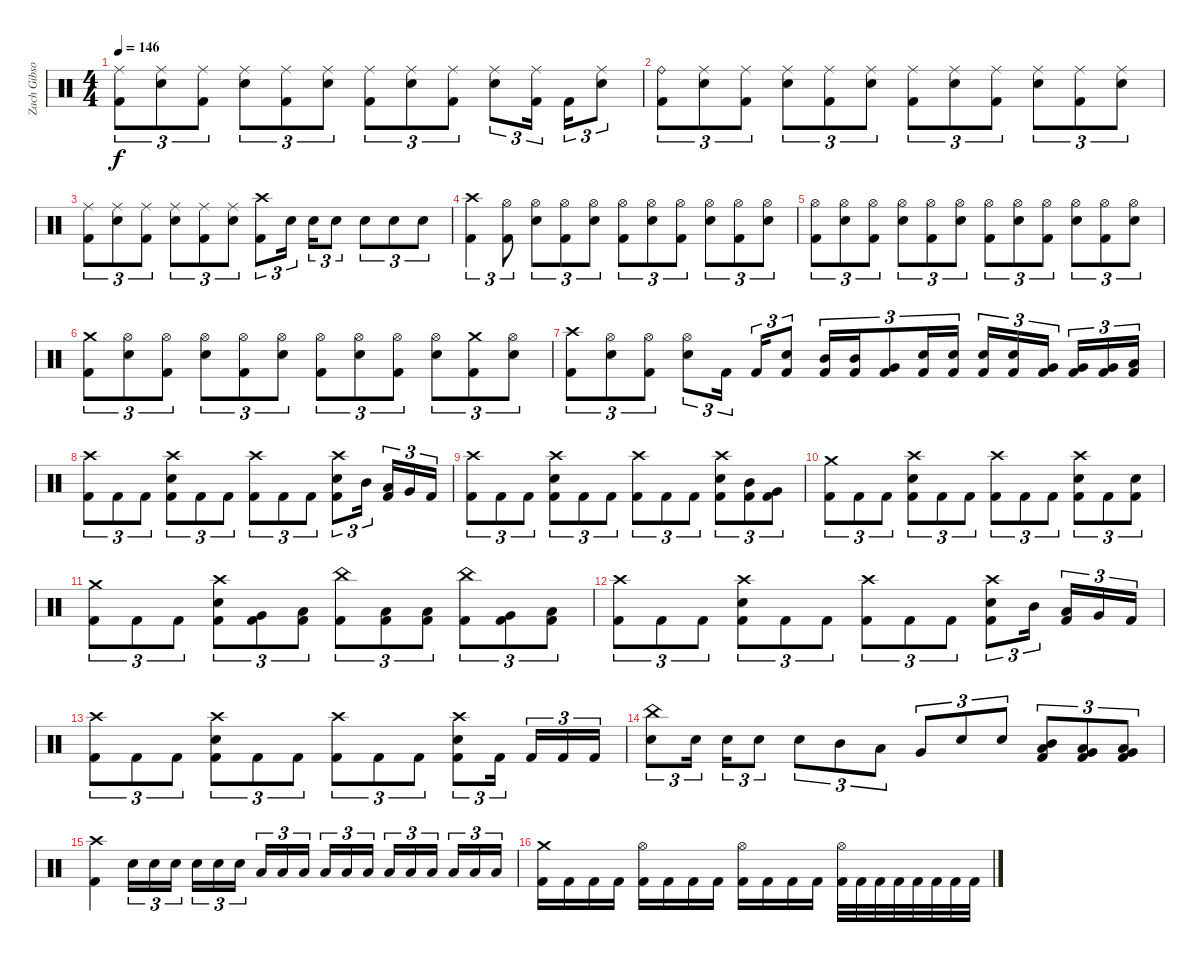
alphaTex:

\track ("Zach Gibson (Drums)" "Zach Gibso") {instrument percussion}
\staff {score}
\articulation defaults
\ts (4 4)
\tempo 146
\clef neutral
\ks c
("Ride (middle)" "Kick (hit) 2").8{tu (3 2) dy f} ("Ride (middle)" "Snare (hit) 2").8{tu (3 2)} ("Ride (middle)" "Kick (hit) 2").8{tu (3 2)} ("Ride (middle)" "Snare (hit) 2").8{tu (3 2)} ("Ride (middle)" "Kick (hit) 2").8{tu (3 2)} ("Ride (middle)" "Snare (hit) 2").8{tu (3 2)} ("Ride (middle)" "Kick (hit) 2").8{tu (3 2)} ("Ride (middle)" "Snare (hit) 2").8{tu (3 2)} ("Ride (middle)" "Kick (hit) 2").8{tu (3 2)} ("Ride (middle)" "Snare (hit) 2").8{tu (3 2)} ("Ride (middle)" "Kick (hit) 2").16{tu (3 2)} "Kick (hit) 2".16{tu (3 2)} ("Ride (middle)" "Snare (hit) 2").8{tu (3 2)} |
("Ride (bell)" "Kick (hit) 2").8{tu (3 2)} ("Ride (middle)" "Snare (hit) 2").8{tu (3 2)} ("Ride (middle)" "Kick (hit) 2").8{tu (3 2)} ("Ride (middle)" "Snare (hit) 2").8{tu (3 2)} ("Ride (middle)" "Kick (hit) 2").8{tu (3 2)} ("Ride (middle)" "Snare (hit) 2").8{tu (3 2)} ("Ride (middle)" "Kick (hit) 2").8{tu (3 2)} ("Ride (middle)" "Snare (hit) 2").8{tu (3 2)} ("Ride (middle)" "Kick (hit) 2").8{tu (3 2)} ("Ride (middle)" "Snare (hit) 2").8{tu (3 2)} ("Ride (middle)" "Kick (hit) 2").8{tu (3 2)} ("Ride (middle)" "Snare (hit) 2").8{tu (3 2)} |
("Ride (middle)" "Kick (hit) 2").8{tu (3 2)} ("Ride (middle)" "Snare (hit) 2").8{tu (3 2)} ("Ride (middle)" "Kick (hit) 2").8{tu (3 2)} ("Ride (middle)" "Snare (hit) 2").8{tu (3 2)} ("Ride (middle)" "Kick (hit) 2").8{tu (3 2)} ("Ride (middle)" "Snare (hit) 2").8{tu (3 2)} ("Crash high (hit)" "Kick (hit) 2").8{tu (3 2)} "Snare (hit) 2".16{tu (3 2)} "Snare (hit) 2".16{tu (3 2)} "Snare (hit) 2".8{tu (3 2)} "Snare (hit) 2".8{tu (3 2)} "Snare (hit) 2".8{tu (3 2)} "Snare (hit) 2".8{tu (3 2)} |
("Crash high (hit)" "Kick (hit) 2").4{tu (3 2)} ("Hi-Hat (open)" "Kick (hit) 2").8{tu (3 2)} ("Hi-Hat (open)" "Snare (hit) 2").8{tu (3 2)} ("Hi-Hat (open)" "Kick (hit) 2").8{tu (3 2)} ("Hi-Hat (open)" "Snare (hit) 2").8{tu (3 2)} ("Hi-Hat (open)" "Kick (hit) 2").8{tu (3 2)} ("Hi-Hat (open)" "Snare (hit) 2").8{tu (3 2)} ("Hi-Hat (open)" "Kick (hit) 2").8{tu (3 2)} ("Hi-Hat (open)" "Snare (hit) 2").8{tu (3 2)} ("Hi-Hat (open)" "Kick (hit) 2").8{tu (3 2)} ("Hi-Hat (open)" "Snare (hit) 2").8{tu (3 2)} |
("Hi-Hat (open)" "Kick (hit) 2").8{tu (3 2)} ("Hi-Hat (open)" "Snare (hit) 2").8{tu (3 2)} ("Hi-Hat (open)" "Kick (hit) 2").8{tu (3 2)} ("Hi-Hat (open)" "Snare (hit) 2").8{tu (3 2)} ("Hi-Hat (open)" "Kick (hit) 2").8{tu (3 2)} ("Hi-Hat (open)" "Snare (hit) 2").8{tu (3 2)} ("Hi-Hat (open)" "Kick (hit) 2").8{tu (3 2)} ("Hi-Hat (open)" "Snare (hit) 2").8{tu (3 2)} ("Hi-Hat (open)" "Kick (hit) 2").8{tu (3 2)} ("Hi-Hat (open)" "Snare (hit) 2").8{tu (3 2)} ("Hi-Hat (open)" "Kick (hit) 2").8{tu (3 2)} ("Hi-Hat (open)" "Snare (hit) 2").8{tu (3 2)} |
("Crash medium (hit)" "Kick (hit) 2").8{tu (3 2)} ("Hi-Hat (open)" "Snare (hit) 2").8{tu (3 2)} ("Hi-Hat (open)" "Kick (hit) 2").8{tu (3 2)} ("Hi-Hat (open)" "Snare (hit) 2").8{tu (3 2)} ("Hi-Hat (open)" "Kick (hit) 2").8{tu (3 2)} ("Hi-Hat (open)" "Snare (hit) 2").8{tu (3 2)} ("Hi-Hat (open)" "Kick (hit) 2").8{tu (3 2)} ("Hi-Hat (open)" "Snare (hit) 2").8{tu (3 2)} ("Hi-Hat (open)" "Kick (hit) 2").8{tu (3 2)} ("Hi-Hat (open)" "Snare (hit) 2").8{tu (3 2)} ("Crash medium (hit)" "Kick (hit) 2").8{tu (3 2)} ("Hi-Hat (open)" "Snare (hit) 2").8{tu (3 2)} |
("Crash high (hit)" "Kick (hit) 2").8{tu (3 2)} ("Hi-Hat (open)" "Snare (hit) 2").8{tu (3 2)} ("Hi-Hat (open)" "Kick (hit) 2").8{tu (3 2)} ("Hi-Hat (open)" "Snare (hit) 2").8{tu (3 2)} "Kick (hit) 2".16{tu (3 2)} "Kick (hit) 2".16{tu (3 2)} ("Kick (hit) 2" "Snare (hit) 2").8{tu (3 2)} ("Kick (hit) 2" "Mid Tom (hit)").16{tu (3 2)} ("Kick (hit) 2" "Mid Tom (hit)").16{tu (3 2)} ("Kick (hit) 2" "Very Low Tom (hit)").8{tu (3 2)} ("Kick (hit) 2" "Snare (hit) 2").16{tu (3 2)} ("Kick (hit) 2" "Snare (hit) 2").16{tu (3 2)} ("Kick (hit) 2" "Snare (hit) 2").16{tu (3 2)} ("Kick (hit) 2" "Snare (hit) 2").16{tu (3 2)} ("Kick (hit) 2" "Very Low Tom (hit)").16{tu (3 2)} ("Kick (hit) 2" "Very Low Tom (hit)").16{tu (3 2)} ("Kick (hit) 2" "Very Low Tom (hit)").16{tu (3 2)} ("Kick (hit) 2" "Low Floor Tom (hit)").16{tu (3 2)} |
("Crash high (hit)" "Kick (hit) 2").8{tu (3 2)} "Kick (hit) 2".8{tu (3 2)} "Kick (hit) 2".8{tu (3 2)} ("Crash high (hit)" "Snare (hit) 2" "Kick (hit) 2").8{tu (3 2)} "Kick (hit) 2".8{tu (3 2)} "Kick (hit) 2".8{tu (3 2)} ("Crash high (hit)" "Kick (hit) 2").8{tu (3 2)} "Kick (hit) 2".8{tu (3 2)} "Kick (hit) 2".8{tu (3 2)} ("Crash high (hit)" "Snare (hit) 2" "Kick (hit) 2").8{tu (3 2)} "Mid Tom (hit)".16{tu (3 2)} ("Low Tom (hit)" "Kick (hit) 2").16{tu (3 2)} "Very Low Tom (hit)".16{tu (3 2)} "Kick (hit) 2".16{tu (3 2)} |
("Crash high (hit)" "Kick (hit) 2").8{tu (3 2)} "Kick (hit) 2".8{tu (3 2)} "Kick (hit) 2".8{tu (3 2)} ("Crash high (hit)" "Snare (hit) 2" "Kick (hit) 2").8{tu (3 2)} "Kick (hit) 2".8{tu (3 2)} "Kick (hit) 2".8{tu (3 2)} ("Crash high (hit)" "Kick (hit) 2").8{tu (3 2)} "Kick (hit) 2".8{tu (3 2)} "Kick (hit) 2".8{tu (3 2)} ("Crash high (hit)" "Snare (hit) 2" "Kick (hit) 2").8{tu (3 2)} ("Mid Tom (hit)" "Kick (hit) 2").8{tu (3 2)} ("Very Low Tom (hit)" "Kick (hit) 2").8{tu (3 2)} |
("Crash medium (hit)" "Kick (hit) 2").8{tu (3 2)} "Kick (hit) 2".8{tu (3 2)} "Kick (hit) 2".8{tu (3 2)} ("Crash high (hit)" "Snare (hit) 2" "Kick (hit) 2").8{tu (3 2)} "Kick (hit) 2".8{tu (3 2)} "Kick (hit) 2".8{tu (3 2)} ("Crash high (hit)" "Kick (hit) 2").8{tu (3 2)} "Kick (hit) 2".8{tu (3 2)} "Kick (hit) 2".8{tu (3 2)} ("Crash high (hit)" "Snare (hit) 2" "Kick (hit) 2").8{tu (3 2)} "Kick (hit) 2".8{tu (3 2)} ("Snare (hit) 2" "Kick (hit) 2").8{tu (3 2)} |
("Crash medium (hit)" "Kick (hit) 2").8{tu (3 2)} "Kick (hit) 2".8{tu (3 2)} "Kick (hit) 2".8{tu (3 2)} ("Crash high (hit)" "Snare (hit) 2" "Kick (hit) 2").8{tu (3 2)} ("Very Low Tom (hit)" "Kick (hit) 2").8{tu (3 2)} ("Low Floor Tom (hit)" "Kick (hit) 2").8{tu (3 2)} ("China (hit)" "Kick (hit) 2").8{tu (3 2)} ("Low Tom (hit)" "Kick (hit) 2").8{tu (3 2)} ("Low Floor Tom (hit)" "Kick (hit) 2").8{tu (3 2)} ("China (hit)" "Kick (hit) 2").8{tu (3 2)} ("Very Low Tom (hit)" "Kick (hit) 2").8{tu (3 2)} ("Low Floor Tom (hit)" "Kick (hit) 2").8{tu (3 2)} |
("Crash high (hit)" "Kick (hit) 2").8{tu (3 2)} "Kick (hit) 2".8{tu (3 2)} "Kick (hit) 2".8{tu (3 2)} ("Crash high (hit)" "Snare (hit) 2" "Kick (hit) 2").8{tu (3 2)} "Kick (hit) 2".8{tu (3 2)} "Kick (hit) 2".8{tu (3 2)} ("Crash high (hit)" "Kick (hit) 2").8{tu (3 2)} "Kick (hit) 2".8{tu (3 2)} "Kick (hit) 2".8{tu (3 2)} ("Crash high (hit)" "Snare (hit) 2" "Kick (hit) 2").8{tu (3 2)} "Mid Tom (hit)".16{tu (3 2)} ("Low Tom (hit)" "Kick (hit) 2").16{tu (3 2)} "Very Low Tom (hit)".16{tu (3 2)} "Kick (hit) 2".16{tu (3 2)} |
("Crash high (hit)" "Kick (hit) 2").8{tu (3 2)} "Kick (hit) 2".8{tu (3 2)} "Kick (hit) 2".8{tu (3 2)} ("Crash high (hit)" "Snare (hit) 2" "Kick (hit) 2").8{tu (3 2)} "Kick (hit) 2".8{tu (3 2)} "Kick (hit) 2".8{tu (3 2)} ("Crash high (hit)" "Kick (hit) 2").8{tu (3 2)} "Kick (hit) 2".8{tu (3 2)} "Kick (hit) 2".8{tu (3 2)} ("Crash high (hit)" "Snare (hit) 2" "Kick (hit) 2").8{tu (3 2)} "Kick (hit) 2".16{tu (3 2)} "Kick (hit) 2".16{tu (3 2)} "Kick (hit) 2".16{tu (3 2)} "Kick (hit) 2".16{tu (3 2)} |
("China (hit)" "Snare (hit) 2").8{tu (3 2)} "Snare (hit) 2".16{tu (3 2)} "Snare (hit) 2".16{tu (3 2)} "Snare (hit) 2".8{tu (3 2)} "Snare (hit) 2".8{tu (3 2)} "Mid Tom (hit)".8{tu (3 2)} "Low Tom (hit)".8{tu (3 2)} "Very Low Tom (hit)".8{tu (3 2)} "Snare (hit) 2".8{tu (3 2)} "Snare (hit) 2".8{tu (3 2)} ("Mid Tom (hit)" "Kick (hit) 2" "Low Tom (hit)").8{tu (3 2)} ("Low Tom (hit)" "Kick (hit) 2" "Very Low Tom (hit)").8{tu (3 2)} ("Very Low Tom (hit)" "Kick (hit) 2" "Low Floor Tom (hit)").8{tu (3 2)} |
("Crash high (hit)" "Kick (hit) 2").4 "Snare (hit) 2".16{tu (3 2)} "Snare (hit) 2".16{tu (3 2)} "Snare (hit) 2".16{tu (3 2)} "Snare (hit) 2".16{tu (3 2)} "Snare (hit) 2".16{tu (3 2)} "Snare (hit) 2".16{tu (3 2)} "Low Tom (hit)".16{tu (3 2)} "Low Tom (hit)".16{tu (3 2)} "Low Tom (hit)".16{tu (3 2)} "Low Tom (hit)".16{tu (3 2)} "Low Tom (hit)".16{tu (3 2)} "Low Tom (hit)".16{tu (3 2)} "Low Floor Tom (hit)".16{tu (3 2)} "Low Floor Tom (hit)".16{tu (3 2)} "Low Floor Tom (hit)".16{tu (3 2)} "Low Floor Tom (hit)".16{tu (3 2)} "Low Floor Tom (hit)".16{tu (3 2)} "Low Floor Tom (hit)".16{tu (3 2)} |
("Crash medium (hit)" "Kick (hit) 2").16 "Kick (hit) 2".16 "Kick (hit) 2".16 "Kick (hit) 2".16 ("Hi-Hat (open)" "Kick (hit) 2").16 "Kick (hit) 2".16 "Kick (hit) 2".16 "Kick (hit) 2".16 ("Hi-Hat (open)" "Kick (hit) 2").16 "Kick (hit) 2".16 "Kick (hit) 2".16 "Kick (hit) 2".16 ("Hi-Hat (open)" "Kick (hit) 2").32 "Kick (hit) 2".32 "Kick (hit) 2".32 "Kick (hit) 2".32 "Kick (hit) 2".32 "Kick (hit) 2".32 "Kick (hit) 2".32 "Kick (hit) 2".32
